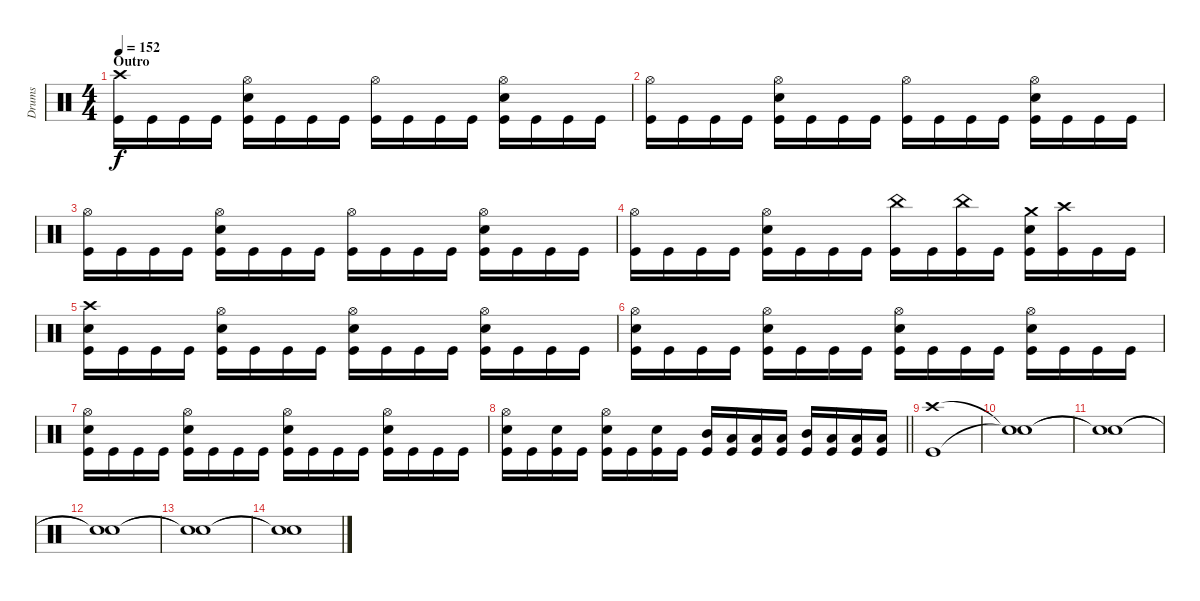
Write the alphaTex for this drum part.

\track ("Drums" "Drums") {instrument percussion}
\staff {score}
\articulation defaults
\ts (4 4)
\section ("" "Outro")
\tempo 152
\clef neutral
\ks c
("Crash high (hit)" "Kick (hit)").16{dy f} "Kick (hit)".16 "Kick (hit)".16 "Kick (hit)".16 ("Snare (hit) 2" "Hi-Hat (open)" "Kick (hit)").16 "Kick (hit)".16 "Kick (hit)".16 "Kick (hit)".16 ("Hi-Hat (open)" "Kick (hit)").16 "Kick (hit)".16 "Kick (hit)".16 "Kick (hit)".16 ("Hi-Hat (open)" "Snare (hit) 2" "Kick (hit)").16 "Kick (hit)".16 "Kick (hit)".16 "Kick (hit)".16 |
("Hi-Hat (open)" "Kick (hit)").16 "Kick (hit)".16 "Kick (hit)".16 "Kick (hit)".16 ("Snare (hit) 2" "Hi-Hat (open)" "Kick (hit)").16 "Kick (hit)".16 "Kick (hit)".16 "Kick (hit)".16 ("Hi-Hat (open)" "Kick (hit)").16 "Kick (hit)".16 "Kick (hit)".16 "Kick (hit)".16 ("Hi-Hat (open)" "Snare (hit) 2" "Kick (hit)").16 "Kick (hit)".16 "Kick (hit)".16 "Kick (hit)".16 |
("Hi-Hat (open)" "Kick (hit)").16 "Kick (hit)".16 "Kick (hit)".16 "Kick (hit)".16 ("Snare (hit) 2" "Hi-Hat (open)" "Kick (hit)").16 "Kick (hit)".16 "Kick (hit)".16 "Kick (hit)".16 ("Hi-Hat (open)" "Kick (hit)").16 "Kick (hit)".16 "Kick (hit)".16 "Kick (hit)".16 ("Hi-Hat (open)" "Snare (hit) 2" "Kick (hit)").16 "Kick (hit)".16 "Kick (hit)".16 "Kick (hit)".16 |
("Hi-Hat (open)" "Kick (hit)").16 "Kick (hit)".16 "Kick (hit)".16 "Kick (hit)".16 ("Snare (hit) 2" "Hi-Hat (open)" "Kick (hit)").16 "Kick (hit)".16 "Kick (hit)".16 "Kick (hit)".16 ("China (hit)" "Kick (hit)").16 "Kick (hit)".16 ("China (hit)" "Kick (hit)").16 "Kick (hit)".16 ("Crash medium (hit)" "Snare (hit) 2" "Kick (hit)").16 ("Crash high (hit)" "Kick (hit)").16 "Kick (hit)".16 "Kick (hit)".16 |
("Crash high (hit)" "Snare (hit) 2" "Kick (hit)").16 "Kick (hit)".16 "Kick (hit)".16 "Kick (hit)".16 ("Snare (hit) 2" "Hi-Hat (open)" "Kick (hit)").16 "Kick (hit)".16 "Kick (hit)".16 "Kick (hit)".16 ("Hi-Hat (open)" "Snare (hit) 2" "Kick (hit)").16 "Kick (hit)".16 "Kick (hit)".16 "Kick (hit)".16 ("Hi-Hat (open)" "Snare (hit) 2" "Kick (hit)").16 "Kick (hit)".16 "Kick (hit)".16 "Kick (hit)".16 |
("Hi-Hat (open)" "Snare (hit) 2" "Kick (hit)").16 "Kick (hit)".16 "Kick (hit)".16 "Kick (hit)".16 ("Snare (hit) 2" "Hi-Hat (open)" "Kick (hit)").16 "Kick (hit)".16 "Kick (hit)".16 "Kick (hit)".16 ("Hi-Hat (open)" "Snare (hit) 2" "Kick (hit)").16 "Kick (hit)".16 "Kick (hit)".16 "Kick (hit)".16 ("Hi-Hat (open)" "Snare (hit) 2" "Kick (hit)").16 "Kick (hit)".16 "Kick (hit)".16 "Kick (hit)".16 |
("Hi-Hat (open)" "Snare (hit) 2" "Kick (hit)").16 "Kick (hit)".16 "Kick (hit)".16 "Kick (hit)".16 ("Snare (hit) 2" "Hi-Hat (open)" "Kick (hit)").16 "Kick (hit)".16 "Kick (hit)".16 "Kick (hit)".16 ("Hi-Hat (open)" "Snare (hit) 2" "Kick (hit)").16 "Kick (hit)".16 "Kick (hit)".16 "Kick (hit)".16 ("Hi-Hat (open)" "Snare (hit) 2" "Kick (hit)").16 "Kick (hit)".16 "Kick (hit)".16 "Kick (hit)".16 |
\barLineRight lightlight
("Hi-Hat (open)" "Snare (hit) 2" "Kick (hit)").16 "Kick (hit)".16 ("Snare (hit) 2" "Kick (hit)").16 "Kick (hit)".16 ("Snare (hit) 2" "Hi-Hat (open)" "Kick (hit)").16 "Kick (hit)".16 ("Snare (hit) 2" "Kick (hit)").16 "Kick (hit)".16 ("Mid Tom (hit)" "Kick (hit)").16 ("Low Tom (hit)" "Kick (hit)").16 ("Low Tom (hit)" "Kick (hit)").16 ("Low Tom (hit)" "Kick (hit)").16 ("Mid Tom (hit)" "Kick (hit)").16 ("Low Tom (hit)" "Kick (hit)").16 ("Low Tom (hit)" "Kick (hit)").16 ("Low Tom (hit)" "Kick (hit)").16 |
("Crash high (hit)" "Kick (hit)").1 |
("Snare (hit)"{t} "Snare (hit)"{t}).1 |
("Snare (hit)"{t} "Snare (hit)"{t}).1 |
("Snare (hit)"{t} "Snare (hit)"{t}).1 |
("Snare (hit)"{t} "Snare (hit)"{t}).1 |
("Snare (hit)"{t} "Snare (hit)"{t}).1
